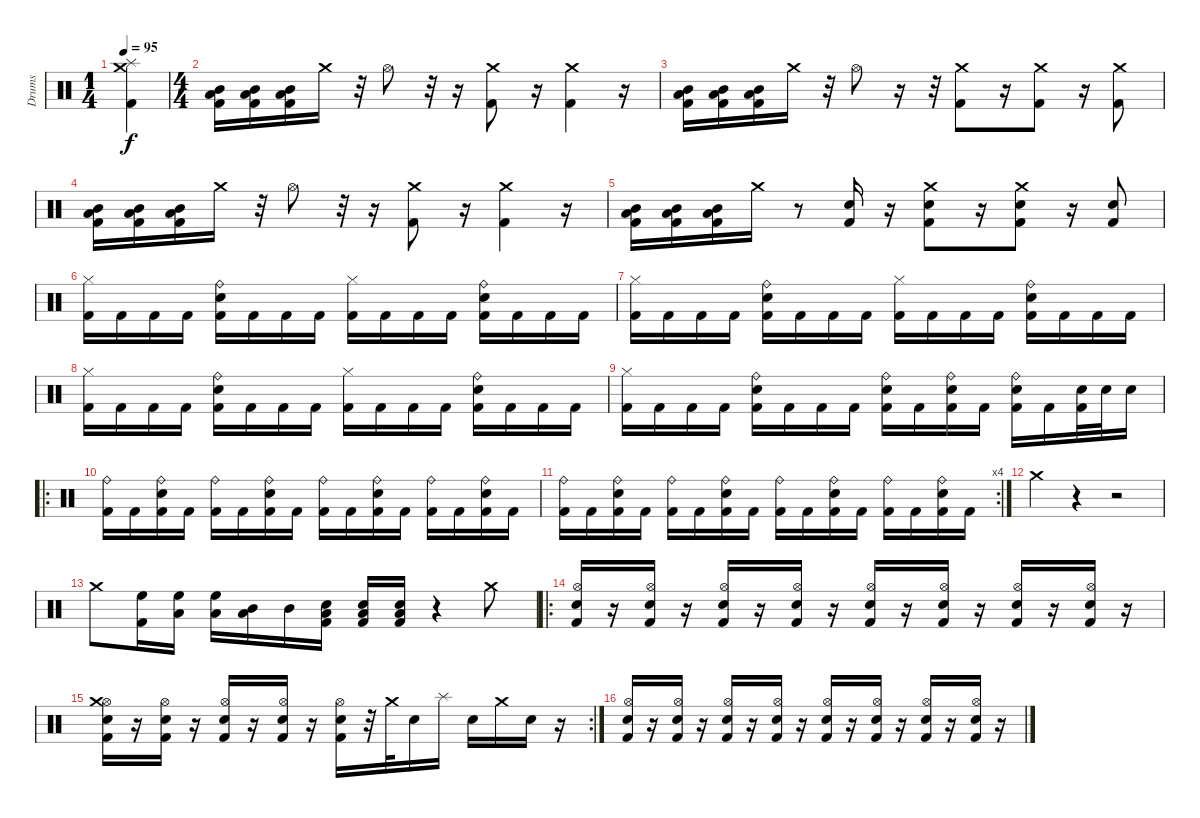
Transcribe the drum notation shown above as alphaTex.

\track ("Drums" "Drums") {instrument percussion}
\staff {score}
\articulation defaults
\ts (1 4)
\tempo 95
\clef neutral
\ks c
("Crash medium (hit)" "Splash (hit)" "Kick (hit) 2").4{dy f} |
\ts (4 4)
("Mid Tom (hit)" "Low Tom (hit)" "Kick (hit) 2").16 ("Mid Tom (hit)" "Low Tom (hit)" "Kick (hit) 2").16 ("Mid Tom (hit)" "Low Tom (hit)" "Kick (hit) 2").16 "Crash medium (hit)".16 r.32 "Hi-Hat (open)".8 r.32 r.16 ("Crash medium (hit)" "Kick (hit) 2").8 r.16 ("Crash medium (hit)" "Kick (hit) 2").4 r.16 |
("Mid Tom (hit)" "Low Tom (hit)" "Kick (hit) 2").16 ("Mid Tom (hit)" "Low Tom (hit)" "Kick (hit) 2").16 ("Mid Tom (hit)" "Low Tom (hit)" "Kick (hit) 2").16 "Crash medium (hit)".16 r.32 "Hi-Hat (open)".8 r.16 r.32 ("Crash medium (hit)" "Kick (hit) 2").8 r.16 ("Crash medium (hit)" "Kick (hit) 2").8 r.16 ("Crash medium (hit)" "Kick (hit) 2").8 |
("Mid Tom (hit)" "Low Tom (hit)" "Kick (hit) 2").16 ("Mid Tom (hit)" "Low Tom (hit)" "Kick (hit) 2").16 ("Mid Tom (hit)" "Low Tom (hit)" "Kick (hit) 2").16 "Crash medium (hit)".16 r.32 "Hi-Hat (open)".8 r.32 r.16 ("Crash medium (hit)" "Kick (hit) 2").8 r.16 ("Crash medium (hit)" "Kick (hit) 2").4 r.16 |
("Mid Tom (hit)" "Low Tom (hit)" "Kick (hit) 2").16 ("Mid Tom (hit)" "Low Tom (hit)" "Kick (hit) 2").16 ("Mid Tom (hit)" "Low Tom (hit)" "Kick (hit) 2").16 "Crash medium (hit)".16 r.8 ("Snare (hit) 2" "Kick (hit) 2").16 r.16 ("Crash medium (hit)" "Snare (hit) 2" "Kick (hit) 2").8 r.16 ("Crash medium (hit)" "Snare (hit) 2" "Kick (hit) 2").8 r.16 ("Snare (hit) 2" "Kick (hit) 2").8 |
("Kick (hit) 2" "Hi-Hat (closed)").16 "Kick (hit) 2".16 "Kick (hit) 2".16 "Kick (hit) 2".16 ("Kick (hit) 2" "Snare (hit) 2" "Ride (bell)").16 "Kick (hit) 2".16 "Kick (hit) 2".16 "Kick (hit) 2".16 ("Kick (hit) 2" "Hi-Hat (closed)").16 "Kick (hit) 2".16 "Kick (hit) 2".16 "Kick (hit) 2".16 ("Kick (hit) 2" "Snare (hit) 2" "Ride (bell)").16 "Kick (hit) 2".16 "Kick (hit) 2".16 "Kick (hit) 2".16 |
("Kick (hit) 2" "Hi-Hat (closed)").16 "Kick (hit) 2".16 "Kick (hit) 2".16 "Kick (hit) 2".16 ("Kick (hit) 2" "Snare (hit) 2" "Ride (bell)").16 "Kick (hit) 2".16 "Kick (hit) 2".16 "Kick (hit) 2".16 ("Kick (hit) 2" "Hi-Hat (closed)").16 "Kick (hit) 2".16 "Kick (hit) 2".16 "Kick (hit) 2".16 ("Kick (hit) 2" "Snare (hit) 2" "Ride (bell)").16 "Kick (hit) 2".16 "Kick (hit) 2".16 "Kick (hit) 2".16 |
("Kick (hit) 2" "Hi-Hat (closed)").16 "Kick (hit) 2".16 "Kick (hit) 2".16 "Kick (hit) 2".16 ("Kick (hit) 2" "Snare (hit) 2" "Ride (bell)").16 "Kick (hit) 2".16 "Kick (hit) 2".16 "Kick (hit) 2".16 ("Kick (hit) 2" "Hi-Hat (closed)").16 "Kick (hit) 2".16 "Kick (hit) 2".16 "Kick (hit) 2".16 ("Kick (hit) 2" "Snare (hit) 2" "Ride (bell)").16 "Kick (hit) 2".16 "Kick (hit) 2".16 "Kick (hit) 2".16 |
("Kick (hit) 2" "Hi-Hat (closed)").16 "Kick (hit) 2".16 "Kick (hit) 2".16 "Kick (hit) 2".16 ("Kick (hit) 2" "Snare (hit) 2" "Ride (bell)").16 "Kick (hit) 2".16 "Kick (hit) 2".16 "Kick (hit) 2".16 ("Kick (hit) 2" "Snare (hit) 2" "Ride (bell)").16 "Kick (hit) 2".16 ("Kick (hit) 2" "Snare (hit) 2" "Ride (bell)").16 "Kick (hit) 2".16 ("Kick (hit) 2" "Snare (hit) 2" "Ride (bell)").16 "Kick (hit) 2".16 ("Kick (hit) 2" "Snare (hit) 2").32 "Snare (hit) 2".32 "Snare (hit) 2".16 |
\ro
("Kick (hit) 2" "Ride (bell)").16 "Kick (hit) 2".16 ("Kick (hit) 2" "Snare (hit) 2" "Ride (bell)").16 "Kick (hit) 2".16 ("Kick (hit) 2" "Ride (bell)").16 "Kick (hit) 2".16 ("Kick (hit) 2" "Snare (hit) 2" "Ride (bell)").16 "Kick (hit) 2".16 ("Kick (hit) 2" "Ride (bell)").16 "Kick (hit) 2".16 ("Kick (hit) 2" "Snare (hit) 2" "Ride (bell)").16 "Kick (hit) 2".16 ("Kick (hit) 2" "Ride (bell)").16 "Kick (hit) 2".16 ("Kick (hit) 2" "Snare (hit) 2" "Ride (bell)").16 "Kick (hit) 2".16 |
\rc 4
("Kick (hit) 2" "Ride (bell)").16 "Kick (hit) 2".16 ("Kick (hit) 2" "Snare (hit) 2" "Ride (bell)").16 "Kick (hit) 2".16 ("Kick (hit) 2" "Ride (bell)").16 "Kick (hit) 2".16 ("Kick (hit) 2" "Snare (hit) 2" "Ride (bell)").16 "Kick (hit) 2".16 ("Kick (hit) 2" "Ride (bell)").16 "Kick (hit) 2".16 ("Kick (hit) 2" "Snare (hit) 2" "Ride (bell)").16 "Kick (hit) 2".16 ("Kick (hit) 2" "Ride (bell)").16 "Kick (hit) 2".16 ("Kick (hit) 2" "Snare (hit) 2" "Ride (bell)").16 "Kick (hit) 2".16 |
"Crash medium (hit)".4 r.4 r.2 |
"Crash medium (hit)".8 ("Kick (hit) 2" "High Floor Tom (hit)").16 ("High Floor Tom (hit)" "Low Tom (hit)").16 ("High Floor Tom (hit)" "Low Tom (hit)").16 ("Low Tom (hit)" "Mid Tom (hit)").16 "Mid Tom (hit)".16 ("Kick (hit) 2" "Snare (hit) 2" "Low Tom (hit)").16 ("Kick (hit) 2" "Snare (hit) 2" "Low Tom (hit)").16 ("Kick (hit) 2" "Snare (hit) 2" "Low Tom (hit)").16 r.4 "Crash medium (hit)".8 |
\ro
("Hi-Hat (open)" "Snare (hit) 2" "Kick (hit) 2").16 r.16 ("Hi-Hat (open)" "Snare (hit) 2" "Kick (hit) 2").16 r.16 ("Hi-Hat (open)" "Snare (hit) 2" "Kick (hit) 2").16 r.16 ("Hi-Hat (open)" "Snare (hit) 2" "Kick (hit) 2").16 r.16 ("Hi-Hat (open)" "Snare (hit) 2" "Kick (hit) 2").16 r.16 ("Hi-Hat (open)" "Snare (hit) 2" "Kick (hit) 2").16 r.16 ("Hi-Hat (open)" "Snare (hit) 2" "Kick (hit) 2").16 r.16 ("Hi-Hat (open)" "Snare (hit) 2" "Kick (hit) 2").16 r.16 |
\rc 2
("Hi-Hat (open)" "Snare (hit) 2" "Kick (hit) 2" "Crash medium (hit)").16 r.16 ("Hi-Hat (open)" "Snare (hit) 2" "Kick (hit) 2").16 r.16 ("Hi-Hat (open)" "Snare (hit) 2" "Kick (hit) 2").16 r.16 ("Hi-Hat (open)" "Snare (hit) 2" "Kick (hit) 2").16 r.16 ("Hi-Hat (open)" "Snare (hit) 2" "Kick (hit) 2").16 r.32 "Crash medium (hit)".32 "Snare (hit) 2".16 "Splash (hit)".16 "Snare (hit) 2".16 "Crash medium (hit)".16 "Snare (hit) 2".16 r.16 |
("Hi-Hat (open)" "Snare (hit) 2" "Kick (hit) 2").16 r.16 ("Hi-Hat (open)" "Snare (hit) 2" "Kick (hit) 2").16 r.16 ("Hi-Hat (open)" "Snare (hit) 2" "Kick (hit) 2").16 r.16 ("Hi-Hat (open)" "Snare (hit) 2" "Kick (hit) 2").16 r.16 ("Hi-Hat (open)" "Snare (hit) 2" "Kick (hit) 2").16 r.16 ("Hi-Hat (open)" "Snare (hit) 2" "Kick (hit) 2").16 r.16 ("Hi-Hat (open)" "Snare (hit) 2" "Kick (hit) 2").16 r.16 ("Hi-Hat (open)" "Snare (hit) 2" "Kick (hit) 2").16 r.16
